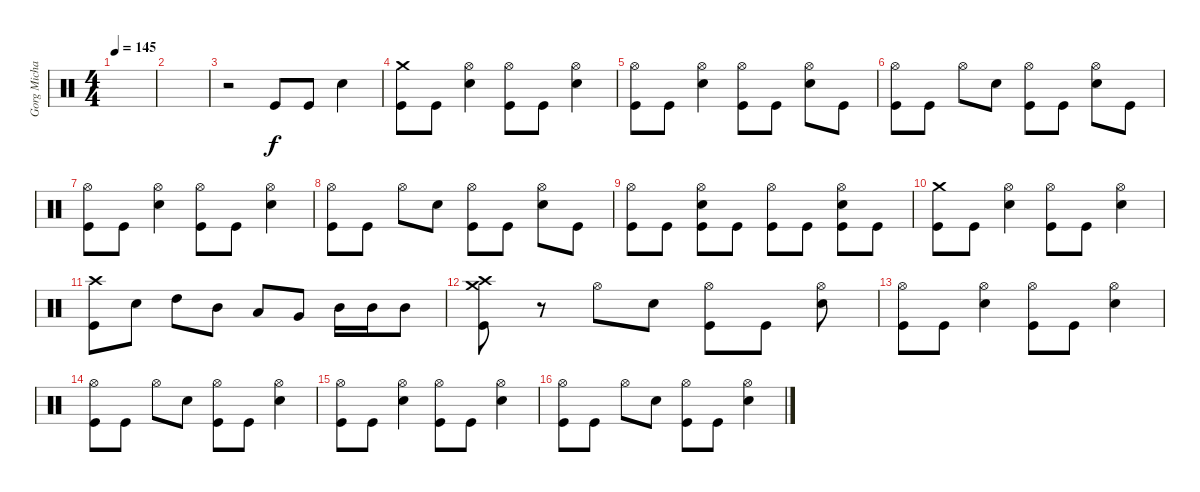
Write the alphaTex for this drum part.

\track ("Gorg Michael" "Gorg Micha") {instrument percussion}
\staff {score}
\articulation defaults
\ts (4 4)
\tempo 145
\clef neutral
\ks c
|
|
r.2 "Kick (hit)".8 "Kick (hit)".8 "Snare (hit) 2".4 |
("Crash medium (hit)" "Kick (hit)").8 "Kick (hit)".8 ("Hi-Hat (open)" "Snare (hit) 2").4 ("Hi-Hat (open)" "Kick (hit)").8 "Kick (hit)".8 ("Hi-Hat (open)" "Snare (hit) 2").4 |
("Hi-Hat (open)" "Kick (hit)").8 "Kick (hit)".8 ("Hi-Hat (open)" "Snare (hit) 2").4 ("Hi-Hat (open)" "Kick (hit)").8 "Kick (hit)".8 ("Hi-Hat (open)" "Snare (hit) 2").8 "Kick (hit)".8 |
("Hi-Hat (open)" "Kick (hit)").8 "Kick (hit)".8 "Hi-Hat (open)".8 "Snare (hit) 2".8 ("Hi-Hat (open)" "Kick (hit)").8 "Kick (hit)".8 ("Hi-Hat (open)" "Snare (hit) 2").8 "Kick (hit)".8 |
("Hi-Hat (open)" "Kick (hit)").8 "Kick (hit)".8 ("Hi-Hat (open)" "Snare (hit) 2").4 ("Hi-Hat (open)" "Kick (hit)").8 "Kick (hit)".8 ("Hi-Hat (open)" "Snare (hit) 2").4 |
("Hi-Hat (open)" "Kick (hit)").8 "Kick (hit)".8 "Hi-Hat (open)".8 "Snare (hit) 2".8 ("Hi-Hat (open)" "Kick (hit)").8 "Kick (hit)".8 ("Hi-Hat (open)" "Snare (hit) 2").8 "Kick (hit)".8 |
("Hi-Hat (open)" "Kick (hit)").8 "Kick (hit)".8 ("Hi-Hat (open)" "Snare (hit) 2" "Kick (hit)").8 "Kick (hit)".8 ("Hi-Hat (open)" "Kick (hit)").8 "Kick (hit)".8 ("Hi-Hat (open)" "Snare (hit) 2" "Kick (hit)").8 "Kick (hit)".8 |
("Crash medium (hit)" "Kick (hit)").8 "Kick (hit)".8 ("Hi-Hat (open)" "Snare (hit) 2").4 ("Hi-Hat (open)" "Kick (hit)").8 "Kick (hit)".8 ("Hi-Hat (open)" "Snare (hit) 2").4 |
("Crash high (hit)" "Kick (hit)").8 "Snare (hit) 2".8 "High Tom (hit)".8 "Mid Tom (hit)".8 "Low Tom (hit)".8 "Very Low Tom (hit)".8 "Mid Tom (hit)".16 "Mid Tom (hit)".16 "Mid Tom (hit)".8 |
("Crash high (hit)" "Crash medium (hit)" "Kick (hit)").8 r.8 "Hi-Hat (open)".8 "Snare (hit) 2".8 ("Hi-Hat (open)" "Kick (hit)").8 "Kick (hit)".8 ("Hi-Hat (open)" "Snare (hit) 2").8 |
("Hi-Hat (open)" "Kick (hit)").8 "Kick (hit)".8 ("Hi-Hat (open)" "Snare (hit) 2").4 ("Hi-Hat (open)" "Kick (hit)").8 "Kick (hit)".8 ("Hi-Hat (open)" "Snare (hit) 2").4 |
("Hi-Hat (open)" "Kick (hit)").8 "Kick (hit)".8 "Hi-Hat (open)".8 "Snare (hit) 2".8 ("Hi-Hat (open)" "Kick (hit)").8 "Kick (hit)".8 ("Hi-Hat (open)" "Snare (hit) 2").4 |
("Hi-Hat (open)" "Kick (hit)").8 "Kick (hit)".8 ("Hi-Hat (open)" "Snare (hit) 2").4 ("Hi-Hat (open)" "Kick (hit)").8 "Kick (hit)".8 ("Hi-Hat (open)" "Snare (hit) 2").4 |
("Hi-Hat (open)" "Kick (hit)").8 "Kick (hit)".8 "Hi-Hat (open)".8 "Snare (hit) 2".8 ("Hi-Hat (open)" "Kick (hit)").8 "Kick (hit)".8 ("Hi-Hat (open)" "Snare (hit) 2").4
